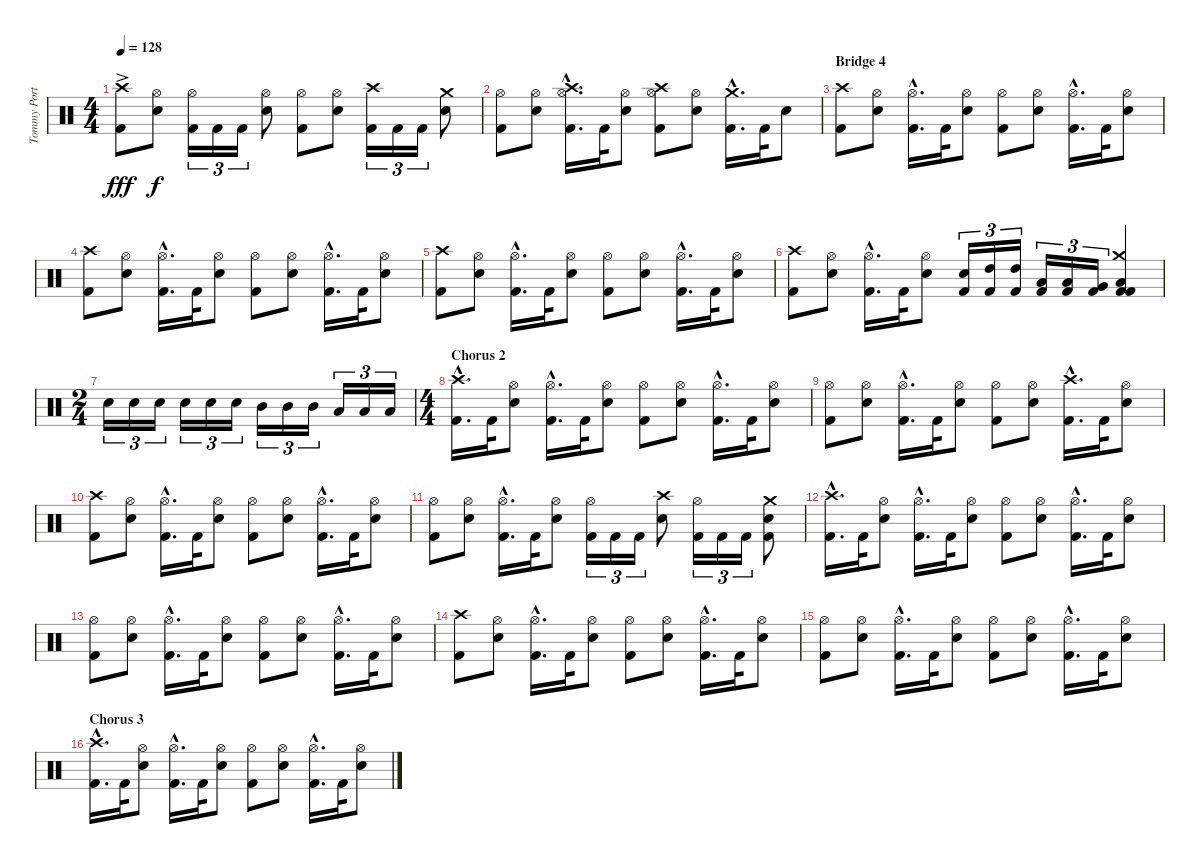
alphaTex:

\track ("Tommy Portimo" "Tommy Port") {instrument percussion}
\staff {score}
\articulation defaults
\ts (4 4)
\tempo 128
\clef neutral
\ks c
("Crash high (hit)"{ac} "Kick (hit) 2").8{dy fff} ("Hi-Hat (open)" "Snare (hit) 2").8{dy f} ("Hi-Hat (open)" "Kick (hit) 2").16{tu (3 2)} "Kick (hit) 2".16{tu (3 2)} "Kick (hit) 2".16{tu (3 2)} ("Hi-Hat (open)" "Snare (hit) 2").8 ("Hi-Hat (open)" "Kick (hit) 2").8 ("Hi-Hat (open)" "Snare (hit) 2").8 ("Crash high (hit)" "Kick (hit) 2").16{tu (3 2)} "Kick (hit) 2".16{tu (3 2)} "Kick (hit) 2".16{tu (3 2)} ("Crash medium (hit)" "Snare (hit) 2").8 |
("Hi-Hat (open)" "Kick (hit) 2").8 ("Hi-Hat (open)" "Snare (hit) 2").8 ("Crash high (hit)"{hac} "Hi-Hat (open)"{hac} "Kick (hit) 2"{hac}).16{d} "Kick (hit) 2".32 ("Hi-Hat (open)" "Snare (hit) 2").8 ("Crash high (hit)" "Hi-Hat (open)" "Kick (hit) 2").8 ("Hi-Hat (open)" "Snare (hit) 2").8 ("Crash medium (hit)"{hac} "Kick (hit) 2"{hac}).16{d} "Kick (hit) 2".32 "Snare (hit) 2".8 |
\section ("" "Bridge 4")
("Crash high (hit)" "Kick (hit) 2").8 ("Hi-Hat (open)" "Snare (hit) 2").8 ("Hi-Hat (open)"{hac} "Kick (hit) 2"{hac}).16{d} "Kick (hit) 2".32 ("Hi-Hat (open)" "Snare (hit) 2").8 ("Hi-Hat (open)" "Kick (hit) 2").8 ("Hi-Hat (open)" "Snare (hit) 2").8 ("Hi-Hat (open)"{hac} "Kick (hit) 2"{hac}).16{d} "Kick (hit) 2".32 ("Hi-Hat (open)" "Snare (hit) 2").8 |
("Crash high (hit)" "Kick (hit) 2").8 ("Hi-Hat (open)" "Snare (hit) 2").8 ("Hi-Hat (open)"{hac} "Kick (hit) 2"{hac}).16{d} "Kick (hit) 2".32 ("Hi-Hat (open)" "Snare (hit) 2").8 ("Hi-Hat (open)" "Kick (hit) 2").8 ("Hi-Hat (open)" "Snare (hit) 2").8 ("Hi-Hat (open)"{hac} "Kick (hit) 2"{hac}).16{d} "Kick (hit) 2".32 ("Hi-Hat (open)" "Snare (hit) 2").8 |
("Crash high (hit)" "Kick (hit) 2").8 ("Hi-Hat (open)" "Snare (hit) 2").8 ("Hi-Hat (open)"{hac} "Kick (hit) 2"{hac}).16{d} "Kick (hit) 2".32 ("Hi-Hat (open)" "Snare (hit) 2").8 ("Hi-Hat (open)" "Kick (hit) 2").8 ("Hi-Hat (open)" "Snare (hit) 2").8 ("Hi-Hat (open)"{hac} "Kick (hit) 2"{hac}).16{d} "Kick (hit) 2".32 ("Hi-Hat (open)" "Snare (hit) 2").8 |
("Crash high (hit)" "Kick (hit) 2").8 ("Hi-Hat (open)" "Snare (hit) 2").8 ("Hi-Hat (open)"{hac} "Kick (hit) 2"{hac}).16{d} "Kick (hit) 2".32 ("Hi-Hat (open)" "Snare (hit) 2").8 ("Snare (hit) 2" "Kick (hit) 2").16{tu (3 2)} ("High Tom (hit)" "Kick (hit) 2").16{tu (3 2)} ("High Tom (hit)" "Kick (hit) 2").16{tu (3 2)} ("Low Tom (hit)" "Kick (hit) 2").16{tu (3 2)} ("Low Tom (hit)" "Kick (hit) 2").16{tu (3 2)} ("Very Low Tom (hit)" "Kick (hit) 2").16{tu (3 2)} ("Crash medium (hit)" "Low Floor Tom (hit)" "Kick (hit) 2" "Kick (hit) 2").4 |
\ts (2 4)
"Snare (hit) 2".16{tu (3 2)} "Snare (hit) 2".16{tu (3 2)} "Snare (hit) 2".16{tu (3 2)} "Snare (hit) 2".16{tu (3 2)} "Snare (hit) 2".16{tu (3 2)} "Snare (hit) 2".16{tu (3 2)} "Mid Tom (hit)".16{tu (3 2)} "Mid Tom (hit)".16{tu (3 2)} "Mid Tom (hit)".16{tu (3 2)} "Low Tom (hit)".16{tu (3 2)} "Low Tom (hit)".16{tu (3 2)} "Low Tom (hit)".16{tu (3 2)} |
\ts (4 4)
\section ("" "Chorus 2")
("Crash high (hit)"{hac} "Kick (hit) 2"{hac}).16{d} "Kick (hit) 2".32 ("Hi-Hat (open)" "Snare (hit) 2").8 ("Hi-Hat (open)"{hac} "Kick (hit) 2"{hac}).16{d} "Kick (hit) 2".32 ("Hi-Hat (open)" "Snare (hit) 2").8 ("Hi-Hat (open)" "Kick (hit) 2").8 ("Hi-Hat (open)" "Snare (hit) 2").8 ("Hi-Hat (open)"{hac} "Kick (hit) 2"{hac}).16{d} "Kick (hit) 2".32 ("Hi-Hat (open)" "Snare (hit) 2").8 |
("Hi-Hat (open)" "Kick (hit) 2").8 ("Hi-Hat (open)" "Snare (hit) 2").8 ("Hi-Hat (open)"{hac} "Kick (hit) 2"{hac}).16{d} "Kick (hit) 2".32 ("Hi-Hat (open)" "Snare (hit) 2").8 ("Hi-Hat (open)" "Kick (hit) 2").8 ("Hi-Hat (open)" "Snare (hit) 2").8 ("Crash high (hit)"{hac} "Kick (hit) 2"{hac}).16{d} "Kick (hit) 2".32 ("Hi-Hat (open)" "Snare (hit) 2").8 |
("Crash high (hit)" "Kick (hit) 2").8 ("Hi-Hat (open)" "Snare (hit) 2").8 ("Hi-Hat (open)"{hac} "Kick (hit) 2"{hac}).16{d} "Kick (hit) 2".32 ("Hi-Hat (open)" "Snare (hit) 2").8 ("Hi-Hat (open)" "Kick (hit) 2").8 ("Hi-Hat (open)" "Snare (hit) 2").8 ("Hi-Hat (open)"{hac} "Kick (hit) 2"{hac}).16{d} "Kick (hit) 2".32 ("Hi-Hat (open)" "Snare (hit) 2").8 |
("Hi-Hat (open)" "Kick (hit) 2").8 ("Hi-Hat (open)" "Snare (hit) 2").8 ("Hi-Hat (open)"{hac} "Kick (hit) 2"{hac}).16{d} "Kick (hit) 2".32 ("Hi-Hat (open)" "Snare (hit) 2").8 ("Hi-Hat (open)" "Kick (hit) 2").16{tu (3 2)} "Kick (hit) 2".16{tu (3 2)} "Kick (hit) 2".16{tu (3 2)} ("Crash high (hit)" "Snare (hit) 2").8 ("Hi-Hat (open)" "Kick (hit) 2").16{tu (3 2)} "Kick (hit) 2".16{tu (3 2)} "Kick (hit) 2".16{tu (3 2)} ("Crash medium (hit)" "Snare (hit) 2" "Kick (hit) 2").8 |
("Crash high (hit)"{hac} "Kick (hit) 2"{hac}).16{d} "Kick (hit) 2".32 ("Hi-Hat (open)" "Snare (hit) 2").8 ("Hi-Hat (open)"{hac} "Kick (hit) 2"{hac}).16{d} "Kick (hit) 2".32 ("Hi-Hat (open)" "Snare (hit) 2").8 ("Hi-Hat (open)" "Kick (hit) 2").8 ("Hi-Hat (open)" "Snare (hit) 2").8 ("Hi-Hat (open)"{hac} "Kick (hit) 2"{hac}).16{d} "Kick (hit) 2".32 ("Hi-Hat (open)" "Snare (hit) 2").8 |
("Hi-Hat (open)" "Kick (hit) 2").8 ("Hi-Hat (open)" "Snare (hit) 2").8 ("Hi-Hat (open)"{hac} "Kick (hit) 2"{hac}).16{d} "Kick (hit) 2".32 ("Hi-Hat (open)" "Snare (hit) 2").8 ("Hi-Hat (open)" "Kick (hit) 2").8 ("Hi-Hat (open)" "Snare (hit) 2").8 ("Hi-Hat (open)"{hac} "Kick (hit) 2"{hac}).16{d} "Kick (hit) 2".32 ("Hi-Hat (open)" "Snare (hit) 2").8 |
("Crash high (hit)" "Kick (hit) 2").8 ("Hi-Hat (open)" "Snare (hit) 2").8 ("Hi-Hat (open)"{hac} "Kick (hit) 2"{hac}).16{d} "Kick (hit) 2".32 ("Hi-Hat (open)" "Snare (hit) 2").8 ("Hi-Hat (open)" "Kick (hit) 2").8 ("Hi-Hat (open)" "Snare (hit) 2").8 ("Hi-Hat (open)"{hac} "Kick (hit) 2"{hac}).16{d} "Kick (hit) 2".32 ("Hi-Hat (open)" "Snare (hit) 2").8 |
("Hi-Hat (open)" "Kick (hit) 2").8 ("Hi-Hat (open)" "Snare (hit) 2").8 ("Hi-Hat (open)"{hac} "Kick (hit) 2"{hac}).16{d} "Kick (hit) 2".32 ("Hi-Hat (open)" "Snare (hit) 2").8 ("Hi-Hat (open)" "Kick (hit) 2").8 ("Hi-Hat (open)" "Snare (hit) 2").8 ("Hi-Hat (open)"{hac} "Kick (hit) 2"{hac}).16{d} "Kick (hit) 2".32 ("Hi-Hat (open)" "Snare (hit) 2").8 |
\section ("" "Chorus 3")
("Crash high (hit)"{hac} "Kick (hit) 2"{hac}).16{d} "Kick (hit) 2".32 ("Hi-Hat (open)" "Snare (hit) 2").8 ("Hi-Hat (open)"{hac} "Kick (hit) 2"{hac}).16{d} "Kick (hit) 2".32 ("Hi-Hat (open)" "Snare (hit) 2").8 ("Hi-Hat (open)" "Kick (hit) 2").8 ("Hi-Hat (open)" "Snare (hit) 2").8 ("Hi-Hat (open)"{hac} "Kick (hit) 2"{hac}).16{d} "Kick (hit) 2".32 ("Hi-Hat (open)" "Snare (hit) 2").8
